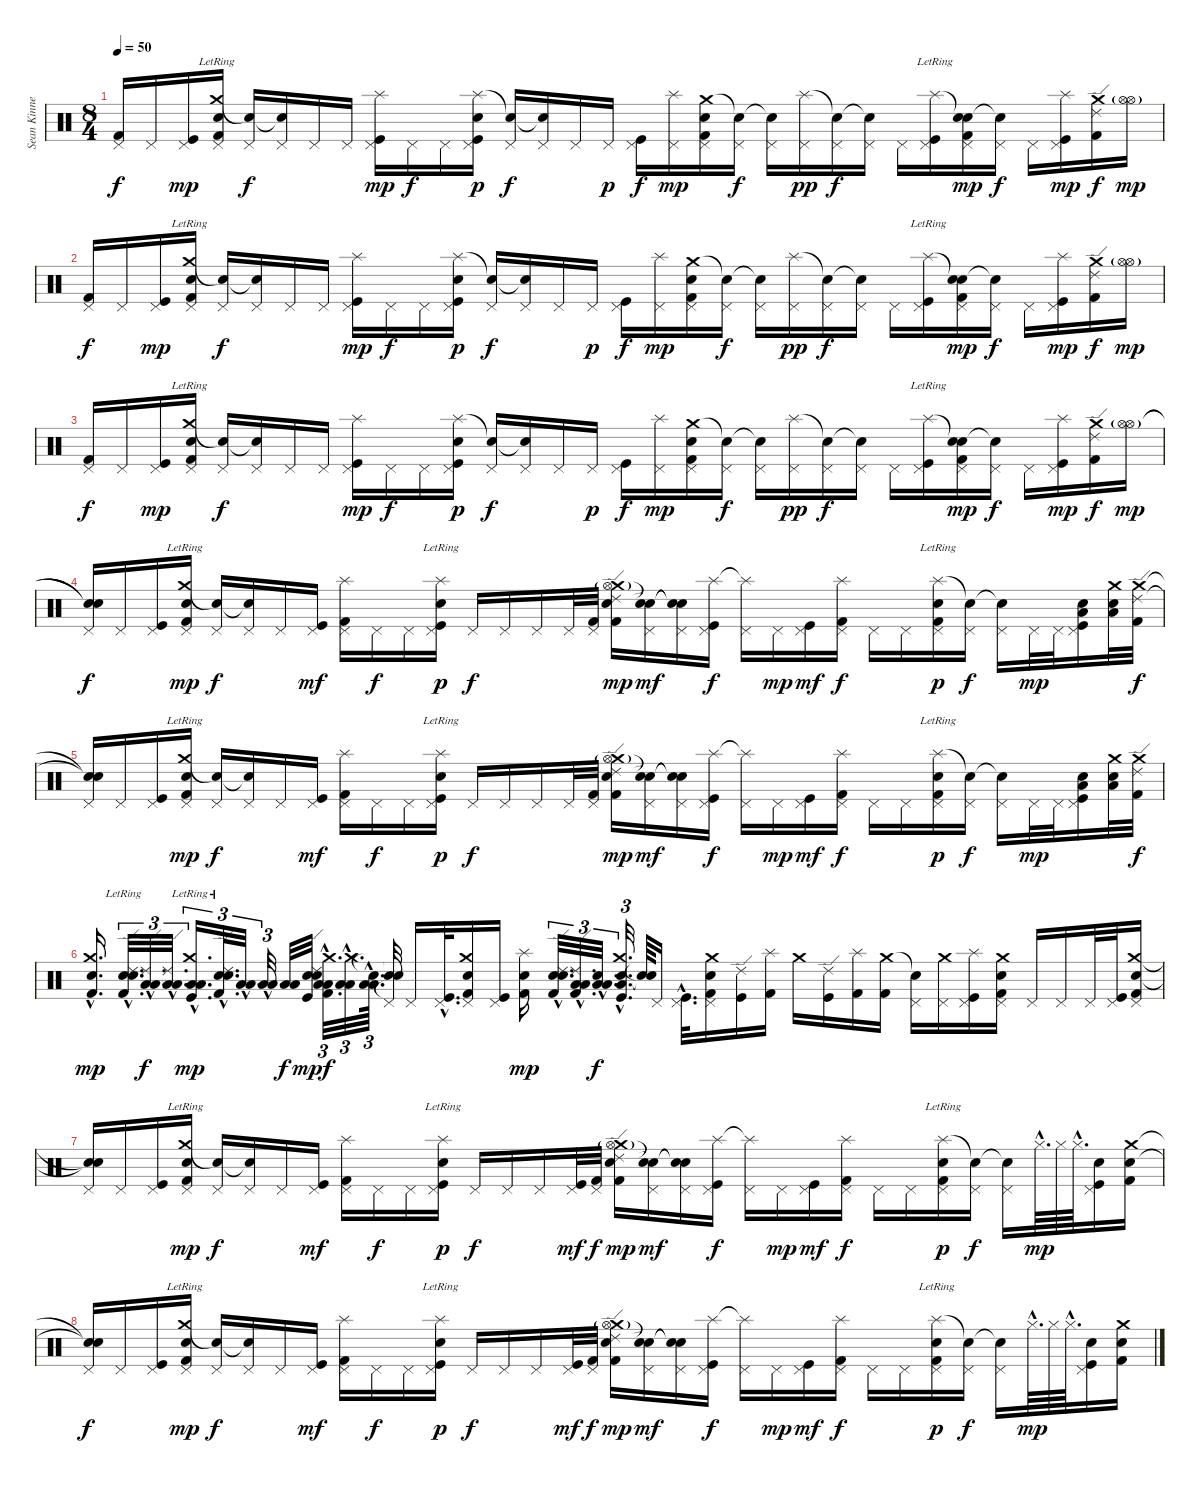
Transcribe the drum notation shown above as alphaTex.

\track ("Sean Kinney" "Sean Kinne") {instrument percussion}
\staff {score}
\articulation defaults
\ts (8 4)
\tempo 50
\clef neutral
\ks c
("Pedal Hi-Hat (hit)" "Kick (hit) 2").16{dy f} "Pedal Hi-Hat (hit)".16 ("Pedal Hi-Hat (hit)" "Kick (hit)").16{dy mp} ("Crash medium (hit)"{lr} "Snare (hit) 2" "Pedal Hi-Hat (hit)" "Kick (hit) 2").16 ("Snare (hit)"{t} "Pedal Hi-Hat (hit)").16{dy f} ("Snare (hit)"{t} "Pedal Hi-Hat (hit)").16 "Pedal Hi-Hat (hit)".16 "Pedal Hi-Hat (hit)".16 ("Splash (hit)" "Pedal Hi-Hat (hit)" "Kick (hit)").16{dy mp} "Pedal Hi-Hat (hit)".16{dy f} "Pedal Hi-Hat (hit)".16 ("Splash (hit)" "Snare (hit) 2" "Pedal Hi-Hat (hit)" "Kick (hit)").16{dy p} ("Snare (hit)"{t} "Pedal Hi-Hat (hit)").16{dy f} ("Snare (hit)"{t} "Pedal Hi-Hat (hit)").16 "Pedal Hi-Hat (hit)".16 "Pedal Hi-Hat (hit)".16{dy p} ("Pedal Hi-Hat (hit)" "Kick (hit)").16{dy f} ("Splash (hit)" "Pedal Hi-Hat (hit)").16{dy mp} ("Crash medium (hit)" "Snare (hit) 2" "Pedal Hi-Hat (hit)" "Kick (hit) 2").16 ("Snare (hit)"{t} "Pedal Hi-Hat (hit)").16{dy f} ("Snare (hit)"{t} "Pedal Hi-Hat (hit)").16 ("Splash (hit)" "Pedal Hi-Hat (hit)").16{dy pp} ("Snare (hit)"{t} "Pedal Hi-Hat (hit)").16{dy f} ("Snare (hit)"{t} "Pedal Hi-Hat (hit)").16 "Pedal Hi-Hat (hit)".16 ("Splash (hit)"{lr} "Pedal Hi-Hat (hit)" "Kick (hit)").16 ("Snare (hit)"{t} "Snare (hit) 2" "Pedal Hi-Hat (hit)" "Kick (hit) 2").16{dy mp} ("Snare (hit)"{t} "Pedal Hi-Hat (hit)").16{dy f} "Pedal Hi-Hat (hit)".16 ("Splash (hit)" "Pedal Hi-Hat (hit)" "Kick (hit)").16{dy mp} ("Crash medium (hit)" "Ride (edge) 2" "Kick (hit) 2").16{dy f} ("Hi-Hat (open)"{g} "Hi-Hat (open)").16{dy mp} |
("Pedal Hi-Hat (hit)" "Kick (hit) 2").16{dy f} "Pedal Hi-Hat (hit)".16 ("Pedal Hi-Hat (hit)" "Kick (hit)").16{dy mp} ("Crash medium (hit)"{lr} "Snare (hit) 2" "Pedal Hi-Hat (hit)" "Kick (hit) 2").16 ("Snare (hit)"{t} "Pedal Hi-Hat (hit)").16{dy f} ("Snare (hit)"{t} "Pedal Hi-Hat (hit)").16 "Pedal Hi-Hat (hit)".16 "Pedal Hi-Hat (hit)".16 ("Splash (hit)" "Pedal Hi-Hat (hit)" "Kick (hit)").16{dy mp} "Pedal Hi-Hat (hit)".16{dy f} "Pedal Hi-Hat (hit)".16 ("Splash (hit)" "Snare (hit) 2" "Pedal Hi-Hat (hit)" "Kick (hit)").16{dy p} ("Snare (hit)"{t} "Pedal Hi-Hat (hit)").16{dy f} ("Snare (hit)"{t} "Pedal Hi-Hat (hit)").16 "Pedal Hi-Hat (hit)".16 "Pedal Hi-Hat (hit)".16{dy p} ("Pedal Hi-Hat (hit)" "Kick (hit)").16{dy f} ("Splash (hit)" "Pedal Hi-Hat (hit)").16{dy mp} ("Crash medium (hit)" "Snare (hit) 2" "Pedal Hi-Hat (hit)" "Kick (hit) 2").16 ("Snare (hit)"{t} "Pedal Hi-Hat (hit)").16{dy f} ("Snare (hit)"{t} "Pedal Hi-Hat (hit)").16 ("Splash (hit)" "Pedal Hi-Hat (hit)").16{dy pp} ("Snare (hit)"{t} "Pedal Hi-Hat (hit)").16{dy f} ("Snare (hit)"{t} "Pedal Hi-Hat (hit)").16 "Pedal Hi-Hat (hit)".16 ("Splash (hit)"{lr} "Pedal Hi-Hat (hit)" "Kick (hit)").16 ("Snare (hit)"{t} "Snare (hit) 2" "Pedal Hi-Hat (hit)" "Kick (hit) 2").16{dy mp} ("Snare (hit)"{t} "Pedal Hi-Hat (hit)").16{dy f} "Pedal Hi-Hat (hit)".16 ("Splash (hit)" "Pedal Hi-Hat (hit)" "Kick (hit)").16{dy mp} ("Crash medium (hit)" "Ride (edge) 2" "Kick (hit) 2").16{dy f} ("Hi-Hat (open)"{g} "Hi-Hat (open)").16{dy mp} |
("Pedal Hi-Hat (hit)" "Kick (hit) 2").16{dy f} "Pedal Hi-Hat (hit)".16 ("Pedal Hi-Hat (hit)" "Kick (hit)").16{dy mp} ("Crash medium (hit)"{lr} "Snare (hit) 2" "Pedal Hi-Hat (hit)" "Kick (hit) 2").16 ("Snare (hit)"{t} "Pedal Hi-Hat (hit)").16{dy f} ("Snare (hit)"{t} "Pedal Hi-Hat (hit)").16 "Pedal Hi-Hat (hit)".16 "Pedal Hi-Hat (hit)".16 ("Splash (hit)" "Pedal Hi-Hat (hit)" "Kick (hit)").16{dy mp} "Pedal Hi-Hat (hit)".16{dy f} "Pedal Hi-Hat (hit)".16 ("Splash (hit)" "Snare (hit) 2" "Pedal Hi-Hat (hit)" "Kick (hit)").16{dy p} ("Snare (hit)"{t} "Pedal Hi-Hat (hit)").16{dy f} ("Snare (hit)"{t} "Pedal Hi-Hat (hit)").16 "Pedal Hi-Hat (hit)".16 "Pedal Hi-Hat (hit)".16{dy p} ("Pedal Hi-Hat (hit)" "Kick (hit)").16{dy f} ("Splash (hit)" "Pedal Hi-Hat (hit)").16{dy mp} ("Crash medium (hit)" "Snare (hit) 2" "Pedal Hi-Hat (hit)" "Kick (hit) 2").16 ("Snare (hit)"{t} "Pedal Hi-Hat (hit)").16{dy f} ("Snare (hit)"{t} "Pedal Hi-Hat (hit)").16 ("Splash (hit)" "Pedal Hi-Hat (hit)").16{dy pp} ("Snare (hit)"{t} "Pedal Hi-Hat (hit)").16{dy f} ("Snare (hit)"{t} "Pedal Hi-Hat (hit)").16 "Pedal Hi-Hat (hit)".16 ("Splash (hit)"{lr} "Pedal Hi-Hat (hit)" "Kick (hit)").16 ("Snare (hit)"{t} "Snare (hit) 2" "Pedal Hi-Hat (hit)" "Kick (hit) 2").16{dy mp} ("Snare (hit)"{t} "Pedal Hi-Hat (hit)").16{dy f} "Pedal Hi-Hat (hit)".16 ("Splash (hit)" "Pedal Hi-Hat (hit)" "Kick (hit)").16{dy mp} ("Crash medium (hit)" "Ride (edge) 2" "Kick (hit) 2").16{dy f} ("Hi-Hat (open)"{g} "Hi-Hat (open)").16{dy mp} |
("Snare (hit)"{t} "Snare (hit)"{t} "Pedal Hi-Hat (hit)").16{dy f} "Pedal Hi-Hat (hit)".16 ("Pedal Hi-Hat (hit)" "Kick (hit)").16 ("Crash medium (hit)"{lr} "Snare (hit) 2" "Pedal Hi-Hat (hit)" "Kick (hit) 2").16{dy mp} ("Snare (hit)"{t} "Pedal Hi-Hat (hit)").16{dy f} ("Snare (hit)"{t} "Pedal Hi-Hat (hit)").16 "Pedal Hi-Hat (hit)".16 ("Pedal Hi-Hat (hit)" "Kick (hit)").16{dy mf} ("Splash (hit)" "Pedal Hi-Hat (hit)" "Kick (hit) 2").16 "Pedal Hi-Hat (hit)".16{dy f} "Pedal Hi-Hat (hit)".16 ("Splash (hit)"{lr} "Snare (hit) 2" "Pedal Hi-Hat (hit)" "Kick (hit)").16{dy p} "Pedal Hi-Hat (hit)".16{dy f} "Pedal Hi-Hat (hit)".16 "Pedal Hi-Hat (hit)".16 "Pedal Hi-Hat (hit)".32 ("Pedal Hi-Hat (hit)" "Kick (hit) 2").32 ("Crash medium (hit)" "Ride (edge) 2" "Snare (hit) 2" "Hi-Hat (open)"{g} "Kick (hit) 2").16{dy mp} ("Snare (hit)"{t} "Snare (hit)"{t} "Pedal Hi-Hat (hit)").16{dy mf} ("Snare (hit)"{t} "Snare (hit)"{t} "Pedal Hi-Hat (hit)").16 ("Splash (hit)" "Pedal Hi-Hat (hit)" "Kick (hit)").16{dy f} ("Splash (hit)"{t} "Pedal Hi-Hat (hit)").16 "Pedal Hi-Hat (hit)".16{dy mp} ("Pedal Hi-Hat (hit)" "Kick (hit)").16{dy mf} ("Splash (hit)" "Pedal Hi-Hat (hit)" "Kick (hit) 2").16{dy f} "Pedal Hi-Hat (hit)".16 "Pedal Hi-Hat (hit)".16 ("Splash (hit)"{lr} "Snare (hit) 2" "Pedal Hi-Hat (hit)" "Kick (hit) 2").16{dy p} ("Snare (hit)"{t} "Pedal Hi-Hat (hit)").16{dy f} ("Snare (hit)"{t} "Pedal Hi-Hat (hit)").16 "Pedal Hi-Hat (hit)".32{dy mp} "Pedal Hi-Hat (hit)".32 ("Low Tom (hit)" "Snare (hit) 2" "Pedal Hi-Hat (hit)" "Kick (hit)").16 ("Crash medium (hit)" "Low Floor Tom (hit)" "Snare (hit) 2").32 ("Crash medium (hit)" "Ride (edge) 2" "Kick (hit) 2").32{dy f} |
("Snare (hit)"{t} "Snare (hit)"{t} "Pedal Hi-Hat (hit)").16 "Pedal Hi-Hat (hit)".16 ("Pedal Hi-Hat (hit)" "Kick (hit)").16 ("Crash medium (hit)"{lr} "Snare (hit) 2" "Pedal Hi-Hat (hit)" "Kick (hit) 2").16{dy mp} ("Snare (hit)"{t} "Pedal Hi-Hat (hit)").16{dy f} ("Snare (hit)"{t} "Pedal Hi-Hat (hit)").16 "Pedal Hi-Hat (hit)".16 ("Pedal Hi-Hat (hit)" "Kick (hit)").16{dy mf} ("Splash (hit)" "Pedal Hi-Hat (hit)" "Kick (hit) 2").16 "Pedal Hi-Hat (hit)".16{dy f} "Pedal Hi-Hat (hit)".16 ("Splash (hit)"{lr} "Snare (hit) 2" "Pedal Hi-Hat (hit)" "Kick (hit)").16{dy p} "Pedal Hi-Hat (hit)".16{dy f} "Pedal Hi-Hat (hit)".16 "Pedal Hi-Hat (hit)".16 "Pedal Hi-Hat (hit)".32 ("Pedal Hi-Hat (hit)" "Kick (hit) 2").32 ("Crash medium (hit)" "Ride (edge) 2" "Snare (hit) 2" "Hi-Hat (open)"{g} "Kick (hit) 2").16{dy mp} ("Snare (hit)"{t} "Snare (hit)"{t} "Pedal Hi-Hat (hit)").16{dy mf} ("Snare (hit)"{t} "Snare (hit)"{t} "Pedal Hi-Hat (hit)").16 ("Splash (hit)" "Pedal Hi-Hat (hit)" "Kick (hit)").16{dy f} ("Splash (hit)"{t} "Pedal Hi-Hat (hit)").16 "Pedal Hi-Hat (hit)".16{dy mp} ("Pedal Hi-Hat (hit)" "Kick (hit)").16{dy mf} ("Splash (hit)" "Pedal Hi-Hat (hit)" "Kick (hit) 2").16{dy f} "Pedal Hi-Hat (hit)".16 "Pedal Hi-Hat (hit)".16 ("Splash (hit)"{lr} "Snare (hit) 2" "Pedal Hi-Hat (hit)" "Kick (hit) 2").16{dy p} ("Snare (hit)"{t} "Pedal Hi-Hat (hit)").16{dy f} ("Snare (hit)"{t} "Pedal Hi-Hat (hit)").16 "Pedal Hi-Hat (hit)".32{dy mp} "Pedal Hi-Hat (hit)".32 ("Low Tom (hit)" "Snare (hit) 2" "Pedal Hi-Hat (hit)" "Kick (hit)").16 ("Crash medium (hit)" "Low Floor Tom (hit)" "Snare (hit) 2").32 ("Crash medium (hit)" "Ride (edge) 2" "Kick (hit) 2").32{dy f} |
("Crash medium (hit)"{hac} "Snare (hit) 2"{hac} "Kick (hit) 2"{hac}).16{d dy mp} ("Ride (edge) 2"{hac lr} "Electric Snare (hit)"{hac} "Snare (hit) 2"{hac} "Kick (hit) 2"{hac}).32{d tu (3 2)} ("Ride (edge) 2"{hac} "Low Floor Tom (hit)"{hac} "Low Floor Tom (hit)"{hac}).32{d tu (3 2) dy f} ("Ride (edge) 2"{hac t} "Low Floor Tom (hit)"{hac} "Low Floor Tom (hit)"{hac}).32{d tu (3 2)} ("Crash medium (hit)"{hac lr} "Low Tom (hit)"{hac} "Low Tom (hit)"{hac} "Kick (hit)"{hac}).16{d tu (3 2) dy mp} ("Ride (edge) 2"{hac lr} "Electric Snare (hit)"{hac} "Snare (hit) 2"{hac} "Kick (hit) 2"{hac}).32{d tu (3 2)} ("Low Floor Tom (hit)"{hac} "Low Floor Tom (hit)"{hac}).32{d tu (3 2)} ("Low Floor Tom (hit)"{hac} "Low Floor Tom (hit)"{hac}).32{d tu (3 2)} ("Low Tom (hit)" "Low Tom (hit)").32{dy f} ("Ride (edge) 2" "Electric Snare (hit)" "Snare (hit) 2" "Kick (hit)").32{dy mp} ("Crash medium (hit)"{hac} "Low Floor Tom (hit)"{hac} "Low Floor Tom (hit)"{hac} "Kick (hit) 2"{hac}).32{d tu (3 2) dy f} ("Crash medium (hit)"{hac} "Low Floor Tom (hit)"{hac} "Low Floor Tom (hit)"{hac}).32{d tu (3 2)} ("Snare (hit)"{hac t} "Low Tom (hit)"{hac} "Low Tom (hit)"{hac}).64{d tu (3 2)} ("Snare (hit)"{t} "Snare (hit)"{t} "Pedal Hi-Hat (hit)"{t}).32 "Pedal Hi-Hat (hit)".16 ("Pedal Hi-Hat (hit)"{hac} "Kick (hit)"{hac}).32{d} ("Crash medium (hit)" "Snare (hit) 2" "Pedal Hi-Hat (hit)" "Kick (hit) 2").16 ("Pedal Hi-Hat (hit)" "Kick (hit)").16 ("Splash (hit)" "Snare (hit) 2" "Kick (hit) 2").16{dy mp} ("Ride (edge) 2"{hac} "Electric Snare (hit)"{hac} "Snare (hit) 2"{hac} "Kick (hit) 2"{hac}).32{d tu (3 2)} ("Ride (edge) 2"{hac} "Low Floor Tom (hit)"{hac} "Low Floor Tom (hit)"{hac} "Kick (hit) 2"{hac}).32{d tu (3 2)} ("Snare (hit)"{hac t} "Low Floor Tom (hit)"{hac} "Low Floor Tom (hit)"{hac}).32{d tu (3 2) dy f} ("Crash medium (hit)"{hac} "Snare (hit) 2"{hac} "Low Tom (hit)"{hac} "Kick (hit)"{hac}).32{d tu (3 2)} ("Snare (hit)"{t} "Snare (hit)"{t}).64 "Pedal Hi-Hat (hit)".16 ("Pedal Hi-Hat (hit)"{hac} "Kick (hit)"{hac}).32{d} ("Crash medium (hit)" "Snare (hit) 2" "Pedal Hi-Hat (hit)" "Kick (hit) 2").16 ("Ride (edge) 2" "Kick (hit)").16 ("Splash (hit)" "Kick (hit) 2").16 "Crash medium (hit)".16 ("Ride (edge) 2" "Kick (hit)").16 ("Splash (hit)" "Kick (hit) 2").16 ("Crash medium (hit)" "Kick (hit) 2").16 ("Snare (hit)"{t} "Pedal Hi-Hat (hit)").16 ("Crash medium (hit)" "Pedal Hi-Hat (hit)").16 ("Splash (hit)" "Pedal Hi-Hat (hit)" "Kick (hit)").16 ("Crash medium (hit)" "Snare (hit) 2" "Pedal Hi-Hat (hit)" "Kick (hit) 2").16 "Pedal Hi-Hat (hit)".16 "Pedal Hi-Hat (hit)".16 "Pedal Hi-Hat (hit)".32 ("Pedal Hi-Hat (hit)" "Kick (hit)").32 ("Crash medium (hit)" "Snare (hit) 2" "Pedal Hi-Hat (hit)" "Kick (hit) 2").16 |
("Snare (hit)"{t} "Snare (hit)"{t} "Pedal Hi-Hat (hit)").16 "Pedal Hi-Hat (hit)".16 ("Pedal Hi-Hat (hit)" "Kick (hit)").16 ("Crash medium (hit)"{lr} "Snare (hit) 2" "Pedal Hi-Hat (hit)" "Kick (hit) 2").16{dy mp} ("Snare (hit)"{t} "Pedal Hi-Hat (hit)").16{dy f} ("Snare (hit)"{t} "Pedal Hi-Hat (hit)").16 "Pedal Hi-Hat (hit)".16 ("Pedal Hi-Hat (hit)" "Kick (hit)").16{dy mf} ("Splash (hit)" "Pedal Hi-Hat (hit)" "Kick (hit) 2").16 "Pedal Hi-Hat (hit)".16{dy f} "Pedal Hi-Hat (hit)".16 ("Splash (hit)"{lr} "Snare (hit) 2" "Pedal Hi-Hat (hit)" "Kick (hit)").16{dy p} "Pedal Hi-Hat (hit)".16{dy f} "Pedal Hi-Hat (hit)".16 "Pedal Hi-Hat (hit)".16 ("Pedal Hi-Hat (hit)" "Kick (hit)").32{dy mf} ("Pedal Hi-Hat (hit)" "Kick (hit) 2").32{dy f} ("Crash medium (hit)" "Ride (edge) 2" "Snare (hit) 2" "Hi-Hat (open)"{g} "Kick (hit) 2").16{dy mp} ("Snare (hit)"{t} "Snare (hit)"{t} "Pedal Hi-Hat (hit)").16{dy mf} ("Snare (hit)"{t} "Snare (hit)"{t} "Pedal Hi-Hat (hit)").16 ("Splash (hit)" "Pedal Hi-Hat (hit)" "Kick (hit)").16{dy f} ("Splash (hit)"{t} "Pedal Hi-Hat (hit)").16 "Pedal Hi-Hat (hit)".16{dy mp} ("Pedal Hi-Hat (hit)" "Kick (hit)").16{dy mf} ("Splash (hit)" "Pedal Hi-Hat (hit)" "Kick (hit) 2").16{dy f} "Pedal Hi-Hat (hit)".16 "Pedal Hi-Hat (hit)".16 ("Splash (hit)"{lr} "Snare (hit) 2" "Pedal Hi-Hat (hit)" "Kick (hit) 2").16{dy p} ("Snare (hit)"{t} "Pedal Hi-Hat (hit)").16{dy f} ("Snare (hit)"{t} "Pedal Hi-Hat (hit)").16 "Hi-Hat (closed)"{hac}.64{d dy mp} "Hi-Hat (closed)".64 "Hi-Hat (closed)"{hac}.64{d} ("Snare (hit) 2" "Pedal Hi-Hat (hit)" "Kick (hit)").16 ("Crash medium (hit)" "Snare (hit) 2" "Kick (hit) 2").16 |
("Snare (hit)"{t} "Snare (hit)"{t} "Pedal Hi-Hat (hit)").16{dy f} "Pedal Hi-Hat (hit)".16 ("Pedal Hi-Hat (hit)" "Kick (hit)").16 ("Crash medium (hit)"{lr} "Snare (hit) 2" "Pedal Hi-Hat (hit)" "Kick (hit) 2").16{dy mp} ("Snare (hit)"{t} "Pedal Hi-Hat (hit)").16{dy f} ("Snare (hit)"{t} "Pedal Hi-Hat (hit)").16 "Pedal Hi-Hat (hit)".16 ("Pedal Hi-Hat (hit)" "Kick (hit)").16{dy mf} ("Splash (hit)" "Pedal Hi-Hat (hit)" "Kick (hit) 2").16 "Pedal Hi-Hat (hit)".16{dy f} "Pedal Hi-Hat (hit)".16 ("Splash (hit)"{lr} "Snare (hit) 2" "Pedal Hi-Hat (hit)" "Kick (hit)").16{dy p} "Pedal Hi-Hat (hit)".16{dy f} "Pedal Hi-Hat (hit)".16 "Pedal Hi-Hat (hit)".16 ("Pedal Hi-Hat (hit)" "Kick (hit)").32{dy mf} ("Pedal Hi-Hat (hit)" "Kick (hit) 2").32{dy f} ("Crash medium (hit)" "Ride (edge) 2" "Snare (hit) 2" "Hi-Hat (open)"{g} "Kick (hit) 2").16{dy mp} ("Snare (hit)"{t} "Snare (hit)"{t} "Pedal Hi-Hat (hit)").16{dy mf} ("Snare (hit)"{t} "Snare (hit)"{t} "Pedal Hi-Hat (hit)").16 ("Splash (hit)" "Pedal Hi-Hat (hit)" "Kick (hit)").16{dy f} ("Splash (hit)"{t} "Pedal Hi-Hat (hit)").16 "Pedal Hi-Hat (hit)".16{dy mp} ("Pedal Hi-Hat (hit)" "Kick (hit)").16{dy mf} ("Splash (hit)" "Pedal Hi-Hat (hit)" "Kick (hit) 2").16{dy f} "Pedal Hi-Hat (hit)".16 "Pedal Hi-Hat (hit)".16 ("Splash (hit)"{lr} "Snare (hit) 2" "Pedal Hi-Hat (hit)" "Kick (hit) 2").16{dy p} ("Snare (hit)"{t} "Pedal Hi-Hat (hit)").16{dy f} ("Snare (hit)"{t} "Pedal Hi-Hat (hit)").16 "Hi-Hat (closed)"{hac}.64{d dy mp} "Hi-Hat (closed)".64 "Hi-Hat (closed)"{hac}.64{d} ("Snare (hit) 2" "Pedal Hi-Hat (hit)" "Kick (hit)").16 ("Crash medium (hit)" "Snare (hit) 2" "Kick (hit) 2").16
